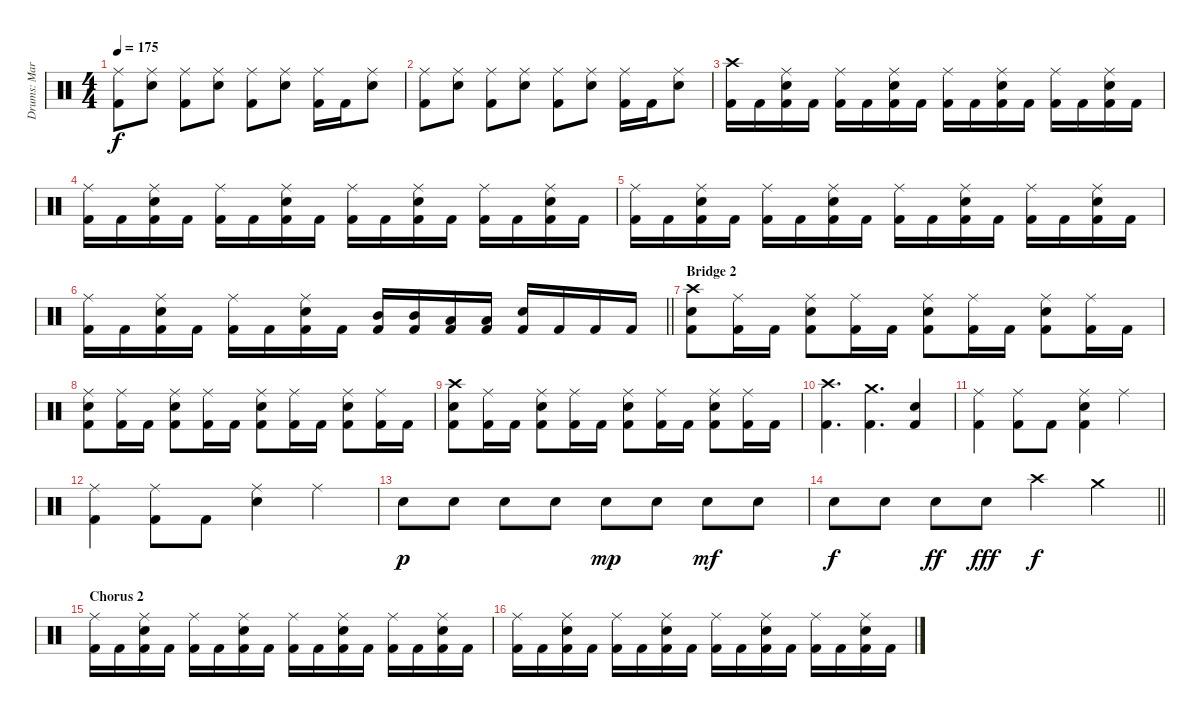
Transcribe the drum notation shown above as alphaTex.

\track ("Drums: Martin Herzinger" "Drums: Mar") {instrument percussion}
\staff {score}
\articulation defaults
\ts (4 4)
\tempo 175
\clef neutral
\ks aminor
("Ride (middle)" "Kick (hit) 2").8{dy f} ("Ride (middle)" "Snare (hit) 2").8 ("Ride (middle)" "Kick (hit) 2").8 ("Ride (middle)" "Snare (hit) 2").8 ("Ride (middle)" "Kick (hit) 2").8 ("Ride (middle)" "Snare (hit) 2").8 ("Ride (middle)" "Kick (hit) 2").16 "Kick (hit) 2".16 ("Ride (middle)" "Snare (hit) 2").8 |
("Ride (middle)" "Kick (hit) 2").8 ("Ride (middle)" "Snare (hit) 2").8 ("Ride (middle)" "Kick (hit) 2").8 ("Ride (middle)" "Snare (hit) 2").8 ("Ride (middle)" "Kick (hit) 2").8 ("Ride (middle)" "Snare (hit) 2").8 ("Ride (middle)" "Kick (hit) 2").16 "Kick (hit) 2".16 ("Ride (middle)" "Snare (hit) 2").8 |
("Crash high (hit)" "Kick (hit) 2").16 "Kick (hit) 2".16 ("Ride (middle)" "Snare (hit) 2" "Kick (hit) 2").16 "Kick (hit) 2".16 ("Ride (middle)" "Kick (hit) 2").16 "Kick (hit) 2".16 ("Ride (middle)" "Snare (hit) 2" "Kick (hit) 2").16 "Kick (hit) 2".16 ("Ride (middle)" "Kick (hit) 2").16 "Kick (hit) 2".16 ("Ride (middle)" "Snare (hit) 2" "Kick (hit) 2").16 "Kick (hit) 2".16 ("Ride (middle)" "Kick (hit) 2").16 "Kick (hit) 2".16 ("Ride (middle)" "Snare (hit) 2" "Kick (hit) 2").16 "Kick (hit) 2".16 |
("Ride (middle)" "Kick (hit) 2").16 "Kick (hit) 2".16 ("Ride (middle)" "Snare (hit) 2" "Kick (hit) 2").16 "Kick (hit) 2".16 ("Ride (middle)" "Kick (hit) 2").16 "Kick (hit) 2".16 ("Ride (middle)" "Snare (hit) 2" "Kick (hit) 2").16 "Kick (hit) 2".16 ("Ride (middle)" "Kick (hit) 2").16 "Kick (hit) 2".16 ("Ride (middle)" "Snare (hit) 2" "Kick (hit) 2").16 "Kick (hit) 2".16 ("Ride (middle)" "Kick (hit) 2").16 "Kick (hit) 2".16 ("Ride (middle)" "Snare (hit) 2" "Kick (hit) 2").16 "Kick (hit) 2".16 |
("Ride (middle)" "Kick (hit) 2").16 "Kick (hit) 2".16 ("Ride (middle)" "Snare (hit) 2" "Kick (hit) 2").16 "Kick (hit) 2".16 ("Ride (middle)" "Kick (hit) 2").16 "Kick (hit) 2".16 ("Ride (middle)" "Snare (hit) 2" "Kick (hit) 2").16 "Kick (hit) 2".16 ("Ride (middle)" "Kick (hit) 2").16 "Kick (hit) 2".16 ("Ride (middle)" "Snare (hit) 2" "Kick (hit) 2").16 "Kick (hit) 2".16 ("Ride (middle)" "Kick (hit) 2").16 "Kick (hit) 2".16 ("Ride (middle)" "Snare (hit) 2" "Kick (hit) 2").16 "Kick (hit) 2".16 |
\barLineRight lightlight
("Ride (middle)" "Kick (hit) 2").16 "Kick (hit) 2".16 ("Ride (middle)" "Snare (hit) 2" "Kick (hit) 2").16 "Kick (hit) 2".16 ("Ride (middle)" "Kick (hit) 2").16 "Kick (hit) 2".16 ("Ride (middle)" "Snare (hit) 2" "Kick (hit) 2").16 "Kick (hit) 2".16 ("Mid Tom (hit)" "Kick (hit) 2").16 ("Mid Tom (hit)" "Kick (hit) 2").16 ("Low Tom (hit)" "Kick (hit) 2").16 ("Low Tom (hit)" "Kick (hit) 2").16 ("Snare (hit) 2" "Kick (hit) 2").16 "Kick (hit) 2".16 "Kick (hit) 2".16 "Kick (hit) 2".16 |
\section ("" "Bridge 2")
("Crash high (hit)" "Snare (hit) 2" "Kick (hit) 2").8 ("Ride (middle)" "Kick (hit) 2").16 "Kick (hit) 2".16 ("Ride (middle)" "Snare (hit) 2" "Kick (hit) 2").8 ("Ride (middle)" "Kick (hit) 2").16 "Kick (hit) 2".16 ("Ride (middle)" "Snare (hit) 2" "Kick (hit) 2").8 ("Ride (middle)" "Kick (hit) 2").16 "Kick (hit) 2".16 ("Ride (middle)" "Snare (hit) 2" "Kick (hit) 2").8 ("Ride (middle)" "Kick (hit) 2").16 "Kick (hit) 2".16 |
("Ride (middle)" "Snare (hit) 2" "Kick (hit) 2").8 ("Ride (middle)" "Kick (hit) 2").16 "Kick (hit) 2".16 ("Ride (middle)" "Snare (hit) 2" "Kick (hit) 2").8 ("Ride (middle)" "Kick (hit) 2").16 "Kick (hit) 2".16 ("Ride (middle)" "Snare (hit) 2" "Kick (hit) 2").8 ("Ride (middle)" "Kick (hit) 2").16 "Kick (hit) 2".16 ("Ride (middle)" "Snare (hit) 2" "Kick (hit) 2").8 ("Ride (middle)" "Kick (hit) 2").16 "Kick (hit) 2".16 |
("Crash high (hit)" "Snare (hit) 2" "Kick (hit) 2").8 ("Ride (middle)" "Kick (hit) 2").16 "Kick (hit) 2".16 ("Ride (middle)" "Snare (hit) 2" "Kick (hit) 2").8 ("Ride (middle)" "Kick (hit) 2").16 "Kick (hit) 2".16 ("Ride (middle)" "Snare (hit) 2" "Kick (hit) 2").8 ("Ride (middle)" "Kick (hit) 2").16 "Kick (hit) 2".16 ("Ride (middle)" "Snare (hit) 2" "Kick (hit) 2").8 ("Ride (middle)" "Kick (hit) 2").16 "Kick (hit) 2".16 |
("Crash high (hit)" "Kick (hit) 2").4{d} ("Crash medium (hit)" "Kick (hit) 2").4{d} ("Snare (hit) 2" "Kick (hit) 2").4 |
("Ride (middle)" "Kick (hit) 2").4 ("Ride (middle)" "Kick (hit) 2").8 "Kick (hit) 2".8 ("Ride (middle)" "Snare (hit) 2" "Kick (hit) 2").4 "Ride (middle)".4 |
("Ride (middle)" "Kick (hit) 2").4 ("Ride (middle)" "Kick (hit) 2").8 "Kick (hit) 2".8 ("Ride (middle)" "Snare (hit) 2").4 "Ride (middle)".4 |
"Snare (hit) 2".8{dy p} "Snare (hit) 2".8 "Snare (hit) 2".8 "Snare (hit) 2".8 "Snare (hit) 2".8{dy mp} "Snare (hit) 2".8 "Snare (hit) 2".8{dy mf} "Snare (hit) 2".8 |
\barLineRight lightlight "Snare (hit) 2".8{dy f} "Snare (hit) 2".8 "Snare (hit) 2".8{dy ff} "Snare (hit) 2".8{dy fff} "Crash high (hit)".4{dy f} "Crash medium (hit)".4
|
\section ("" "Chorus 2")
("Ride (middle)" "Kick (hit) 2").16 "Kick (hit) 2".16 ("Ride (middle)" "Snare (hit) 2" "Kick (hit) 2").16 "Kick (hit) 2".16 ("Ride (middle)" "Kick (hit) 2").16 "Kick (hit) 2".16 ("Ride (middle)" "Snare (hit) 2" "Kick (hit) 2").16 "Kick (hit) 2".16 ("Ride (middle)" "Kick (hit) 2").16 "Kick (hit) 2".16 ("Ride (middle)" "Snare (hit) 2" "Kick (hit) 2").16 "Kick (hit) 2".16 ("Ride (middle)" "Kick (hit) 2").16 "Kick (hit) 2".16 ("Ride (middle)" "Snare (hit) 2" "Kick (hit) 2").16 "Kick (hit) 2".16 |
("Ride (middle)" "Kick (hit) 2").16 "Kick (hit) 2".16 ("Ride (middle)" "Snare (hit) 2" "Kick (hit) 2").16 "Kick (hit) 2".16 ("Ride (middle)" "Kick (hit) 2").16 "Kick (hit) 2".16 ("Ride (middle)" "Snare (hit) 2" "Kick (hit) 2").16 "Kick (hit) 2".16 ("Ride (middle)" "Kick (hit) 2").16 "Kick (hit) 2".16 ("Ride (middle)" "Snare (hit) 2" "Kick (hit) 2").16 "Kick (hit) 2".16 ("Ride (middle)" "Kick (hit) 2").16 "Kick (hit) 2".16 ("Ride (middle)" "Snare (hit) 2" "Kick (hit) 2").16 "Kick (hit) 2".16
